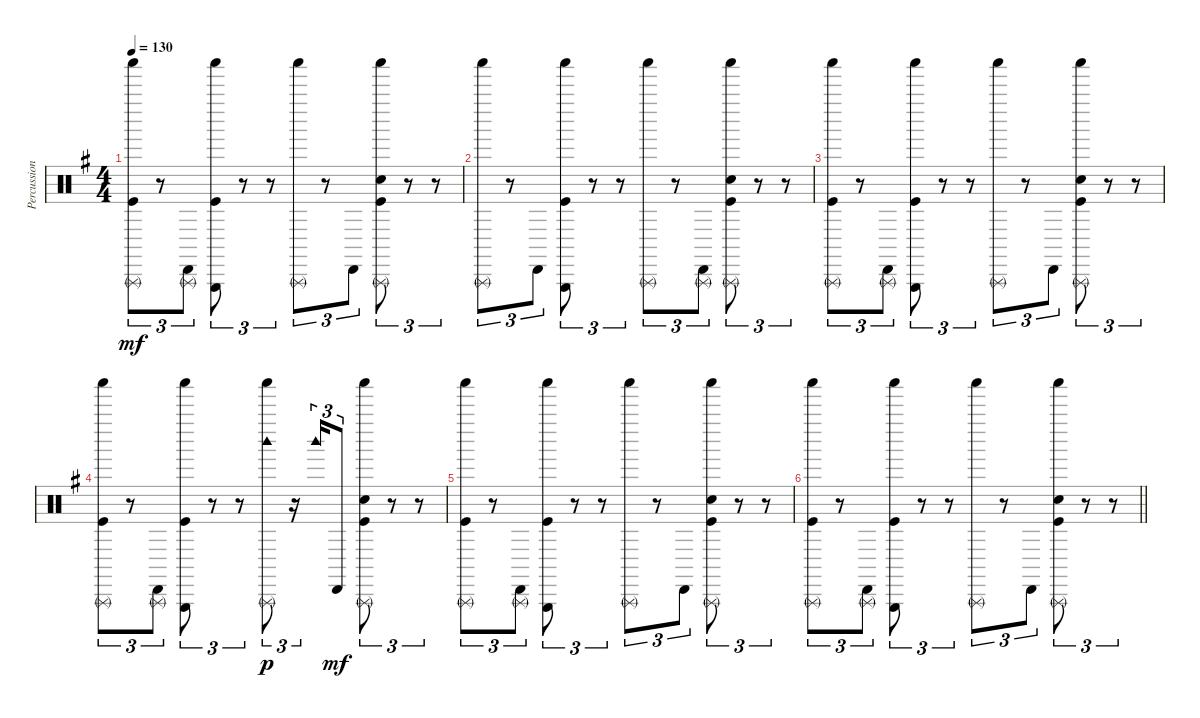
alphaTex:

\track ("Percussion" "Percussion") {instrument percussion}
\staff {score}
\articulation defaults
\ts (4 4)
\tempo 130
\clef neutral
\ks g
("Shaker (hit)" "Kick (hit)" "Triangle (rnute)").8{tu (3 2) dy mf} r.8{tu (3 2)} ("Cabasa (hit)" "Triangle (rnute)").8{tu (3 2)} ("Shaker (hit)" "Kick (hit)" "Triangle (hit)").8{tu (3 2)} r.8{tu (3 2)} r.8{tu (3 2)} ("Shaker (hit)" "Triangle (rnute)").8{tu (3 2)} r.8{tu (3 2)} "Cabasa (hit)".8{tu (3 2)} ("Shaker (hit)" "Kick (hit)" "Triangle (rnute)" "Snare (hit) 2").8{tu (3 2)} r.8{tu (3 2)} r.8{tu (3 2)} |
("Shaker (hit)" "Triangle (rnute)").8{tu (3 2)} r.8{tu (3 2)} "Cabasa (hit)".8{tu (3 2)} ("Shaker (hit)" "Kick (hit)" "Triangle (hit)").8{tu (3 2)} r.8{tu (3 2)} r.8{tu (3 2)} ("Shaker (hit)" "Triangle (rnute)").8{tu (3 2)} r.8{tu (3 2)} ("Cabasa (hit)" "Triangle (rnute)").8{tu (3 2)} ("Shaker (hit)" "Kick (hit)" "Triangle (rnute)" "Snare (hit) 2").8{tu (3 2)} r.8{tu (3 2)} r.8{tu (3 2)} |
("Shaker (hit)" "Kick (hit)" "Triangle (rnute)").8{tu (3 2)} r.8{tu (3 2)} ("Cabasa (hit)" "Triangle (rnute)").8{tu (3 2)} ("Shaker (hit)" "Kick (hit)" "Triangle (hit)").8{tu (3 2)} r.8{tu (3 2)} r.8{tu (3 2)} ("Shaker (hit)" "Triangle (rnute)").8{tu (3 2)} r.8{tu (3 2)} "Cabasa (hit)".8{tu (3 2)} ("Shaker (hit)" "Kick (hit)" "Triangle (rnute)" "Snare (hit) 2").8{tu (3 2)} r.8{tu (3 2)} r.8{tu (3 2)} |
("Shaker (hit)" "Kick (hit)" "Triangle (rnute)").8{tu (3 2)} r.8{tu (3 2)} ("Cabasa (hit)" "Triangle (rnute)").8{tu (3 2)} ("Shaker (hit)" "Kick (hit)" "Triangle (hit)").8{tu (3 2)} r.8{tu (3 2)} r.8{tu (3 2)} ("Shaker (hit)" "Triangle (rnute)" "Woodblock high (hit)").8{tu (3 2) dy p} r.16{tu (3 2)} "Woodblock high (hit)".16{tu (3 2)} "Cabasa (hit)".8{tu (3 2) dy mf} ("Shaker (hit)" "Kick (hit)" "Triangle (rnute)" "Snare (hit) 2").8{tu (3 2)} r.8{tu (3 2)} r.8{tu (3 2)} |
("Shaker (hit)" "Kick (hit)" "Triangle (rnute)").8{tu (3 2)} r.8{tu (3 2)} ("Cabasa (hit)" "Triangle (rnute)").8{tu (3 2)} ("Shaker (hit)" "Kick (hit)" "Triangle (hit)").8{tu (3 2)} r.8{tu (3 2)} r.8{tu (3 2)} ("Shaker (hit)" "Triangle (rnute)").8{tu (3 2)} r.8{tu (3 2)} "Cabasa (hit)".8{tu (3 2)} ("Shaker (hit)" "Kick (hit)" "Triangle (rnute)" "Snare (hit) 2").8{tu (3 2)} r.8{tu (3 2)} r.8{tu (3 2)} |
\barLineRight lightlight
("Shaker (hit)" "Kick (hit)" "Triangle (rnute)").8{tu (3 2)} r.8{tu (3 2)} ("Cabasa (hit)" "Triangle (rnute)").8{tu (3 2)} ("Shaker (hit)" "Kick (hit)" "Triangle (hit)").8{tu (3 2)} r.8{tu (3 2)} r.8{tu (3 2)} ("Shaker (hit)" "Triangle (rnute)").8{tu (3 2)} r.8{tu (3 2)} "Cabasa (hit)".8{tu (3 2)} ("Shaker (hit)" "Kick (hit)" "Triangle (rnute)" "Snare (hit) 2").8{tu (3 2)} r.8{tu (3 2)} r.8{tu (3 2)}
